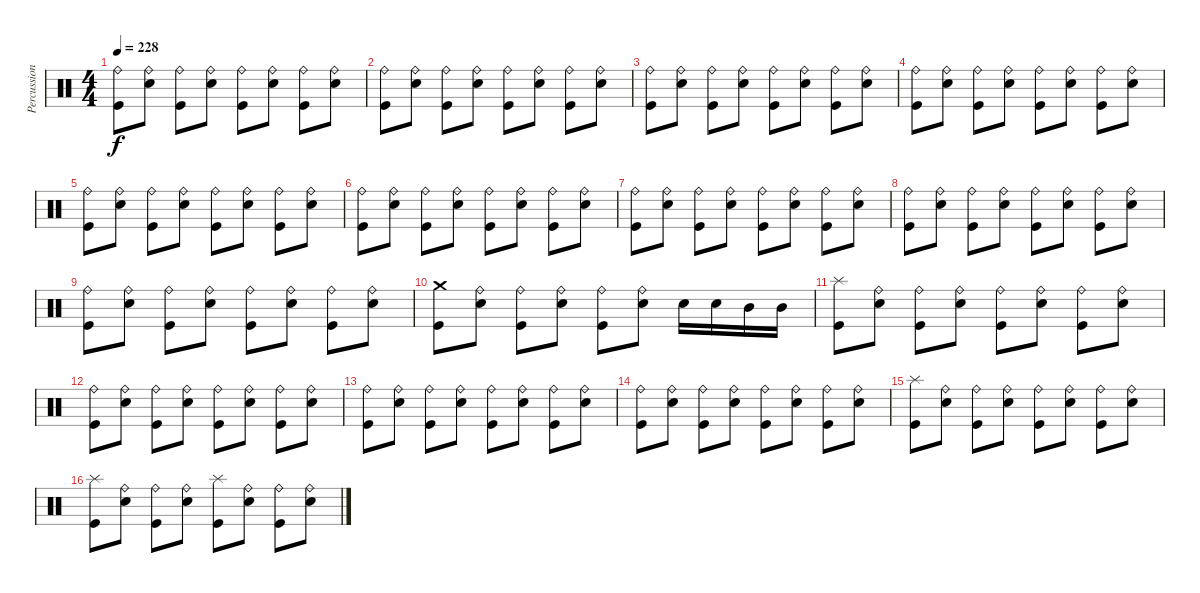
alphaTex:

\track ("Percussions" "Percussion") {instrument percussion}
\staff {score}
\articulation defaults
\ts (4 4)
\tempo 228
\clef neutral
\ks c
("Kick (hit)" "Ride (bell)").8{dy f} ("Electric Snare (hit)" "Ride (bell)").8 ("Kick (hit)" "Ride (bell)").8 ("Electric Snare (hit)" "Ride (bell)").8 ("Kick (hit)" "Ride (bell)").8 ("Electric Snare (hit)" "Ride (bell)").8 ("Kick (hit)" "Ride (bell)").8 ("Electric Snare (hit)" "Ride (bell)").8 |
("Kick (hit)" "Ride (bell)").8 ("Electric Snare (hit)" "Ride (bell)").8 ("Kick (hit)" "Ride (bell)").8 ("Electric Snare (hit)" "Ride (bell)").8 ("Kick (hit)" "Ride (bell)").8 ("Electric Snare (hit)" "Ride (bell)").8 ("Kick (hit)" "Ride (bell)").8 ("Electric Snare (hit)" "Ride (bell)").8 |
("Kick (hit)" "Ride (bell)").8 ("Electric Snare (hit)" "Ride (bell)").8 ("Kick (hit)" "Ride (bell)").8 ("Electric Snare (hit)" "Ride (bell)").8 ("Kick (hit)" "Ride (bell)").8 ("Electric Snare (hit)" "Ride (bell)").8 ("Kick (hit)" "Ride (bell)").8 ("Electric Snare (hit)" "Ride (bell)").8 |
("Kick (hit)" "Ride (bell)").8 ("Electric Snare (hit)" "Ride (bell)").8 ("Kick (hit)" "Ride (bell)").8 ("Electric Snare (hit)" "Ride (bell)").8 ("Kick (hit)" "Ride (bell)").8 ("Electric Snare (hit)" "Ride (bell)").8 ("Kick (hit)" "Ride (bell)").8 ("Electric Snare (hit)" "Ride (bell)").8 |
("Kick (hit)" "Ride (bell)").8 ("Electric Snare (hit)" "Ride (bell)").8 ("Kick (hit)" "Ride (bell)").8 ("Electric Snare (hit)" "Ride (bell)").8 ("Kick (hit)" "Ride (bell)").8 ("Electric Snare (hit)" "Ride (bell)").8 ("Kick (hit)" "Ride (bell)").8 ("Electric Snare (hit)" "Ride (bell)").8 |
("Kick (hit)" "Ride (bell)").8 ("Electric Snare (hit)" "Ride (bell)").8 ("Kick (hit)" "Ride (bell)").8 ("Electric Snare (hit)" "Ride (bell)").8 ("Kick (hit)" "Ride (bell)").8 ("Electric Snare (hit)" "Ride (bell)").8 ("Kick (hit)" "Ride (bell)").8 ("Electric Snare (hit)" "Ride (bell)").8 |
("Kick (hit)" "Ride (bell)").8 ("Electric Snare (hit)" "Ride (bell)").8 ("Kick (hit)" "Ride (bell)").8 ("Electric Snare (hit)" "Ride (bell)").8 ("Kick (hit)" "Ride (bell)").8 ("Electric Snare (hit)" "Ride (bell)").8 ("Kick (hit)" "Ride (bell)").8 ("Electric Snare (hit)" "Ride (bell)").8 |
("Kick (hit)" "Ride (bell)").8 ("Electric Snare (hit)" "Ride (bell)").8 ("Kick (hit)" "Ride (bell)").8 ("Electric Snare (hit)" "Ride (bell)").8 ("Kick (hit)" "Ride (bell)").8 ("Electric Snare (hit)" "Ride (bell)").8 ("Kick (hit)" "Ride (bell)").8 ("Electric Snare (hit)" "Ride (bell)").8 |
("Kick (hit)" "Ride (bell)").8 ("Electric Snare (hit)" "Ride (bell)").8 ("Kick (hit)" "Ride (bell)").8 ("Electric Snare (hit)" "Ride (bell)").8 ("Kick (hit)" "Ride (bell)").8 ("Electric Snare (hit)" "Ride (bell)").8 ("Kick (hit)" "Ride (bell)").8 ("Electric Snare (hit)" "Ride (bell)").8 |
("Kick (hit)" "Crash medium (hit)").8 ("Electric Snare (hit)" "Ride (bell)").8 ("Kick (hit)" "Ride (bell)").8 ("Electric Snare (hit)" "Ride (bell)").8 ("Kick (hit)" "Ride (bell)").8 ("Electric Snare (hit)" "Ride (bell)").8 "Electric Snare (hit)".16 "Electric Snare (hit)".16 "Mid Tom (hit)".16 "Mid Tom (hit)".16 |
("Kick (hit)" "Splash (hit)").8 ("Electric Snare (hit)" "Ride (bell)").8 ("Kick (hit)" "Ride (bell)").8 ("Electric Snare (hit)" "Ride (bell)").8 ("Kick (hit)" "Ride (bell)").8 ("Electric Snare (hit)" "Ride (bell)").8 ("Kick (hit)" "Ride (bell)").8 ("Electric Snare (hit)" "Ride (bell)").8 |
("Kick (hit)" "Ride (bell)").8 ("Electric Snare (hit)" "Ride (bell)").8 ("Kick (hit)" "Ride (bell)").8 ("Electric Snare (hit)" "Ride (bell)").8 ("Kick (hit)" "Ride (bell)").8 ("Electric Snare (hit)" "Ride (bell)").8 ("Kick (hit)" "Ride (bell)").8 ("Electric Snare (hit)" "Ride (bell)").8 |
("Kick (hit)" "Ride (bell)").8 ("Electric Snare (hit)" "Ride (bell)").8 ("Kick (hit)" "Ride (bell)").8 ("Electric Snare (hit)" "Ride (bell)").8 ("Kick (hit)" "Ride (bell)").8 ("Electric Snare (hit)" "Ride (bell)").8 ("Kick (hit)" "Ride (bell)").8 ("Electric Snare (hit)" "Ride (bell)").8 |
("Kick (hit)" "Ride (bell)").8 ("Electric Snare (hit)" "Ride (bell)").8 ("Kick (hit)" "Ride (bell)").8 ("Electric Snare (hit)" "Ride (bell)").8 ("Kick (hit)" "Ride (bell)").8 ("Electric Snare (hit)" "Ride (bell)").8 ("Kick (hit)" "Ride (bell)").8 ("Electric Snare (hit)" "Ride (bell)").8 |
("Kick (hit)" "Splash (hit)").8 ("Electric Snare (hit)" "Ride (bell)").8 ("Kick (hit)" "Ride (bell)").8 ("Electric Snare (hit)" "Ride (bell)").8 ("Kick (hit)" "Ride (bell)").8 ("Electric Snare (hit)" "Ride (bell)").8 ("Kick (hit)" "Ride (bell)").8 ("Electric Snare (hit)" "Ride (bell)").8 |
("Kick (hit)" "Splash (hit)").8 ("Electric Snare (hit)" "Ride (bell)").8 ("Kick (hit)" "Ride (bell)").8 ("Electric Snare (hit)" "Ride (bell)").8 ("Kick (hit)" "Splash (hit)").8 ("Electric Snare (hit)" "Ride (bell)").8 ("Kick (hit)" "Ride (bell)").8 ("Electric Snare (hit)" "Ride (bell)").8
